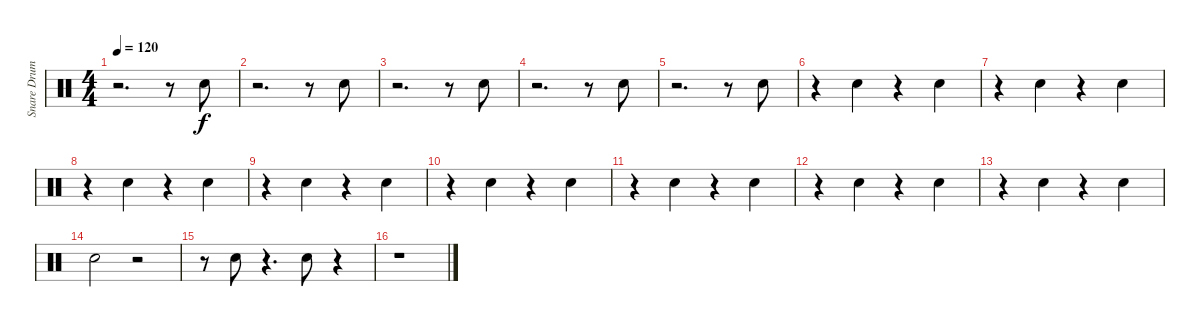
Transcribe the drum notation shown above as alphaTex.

\track ("Snare Drum" "Snare Drum") {instrument percussion}
\staff {score}
\articulation defaults
\ts (4 4)
\tempo 120
\clef neutral
\ks c
r.2{d dy f} r.8 "Snare (hit) 2".8 |
r.2{d} r.8 "Snare (hit) 2".8 |
r.2{d} r.8 "Snare (hit) 2".8 |
r.2{d} r.8 "Snare (hit) 2".8 |
r.2{d} r.8 "Snare (hit) 2".8 |
r.4 "Snare (hit) 2".4 r.4 "Snare (hit) 2".4 |
r.4 "Snare (hit) 2".4 r.4 "Snare (hit) 2".4 |
r.4 "Snare (hit) 2".4 r.4 "Snare (hit) 2".4 |
r.4 "Snare (hit) 2".4 r.4 "Snare (hit) 2".4 |
r.4 "Snare (hit) 2".4 r.4 "Snare (hit) 2".4 |
r.4 "Snare (hit) 2".4 r.4 "Snare (hit) 2".4 |
r.4 "Snare (hit) 2".4 r.4 "Snare (hit) 2".4 |
r.4 "Snare (hit) 2".4 r.4 "Snare (hit) 2".4 |
"Snare (hit) 2".2 r.2 |
r.8 "Snare (hit) 2".8 r.4{d} "Snare (hit) 2".8 r.4 |
r.1
